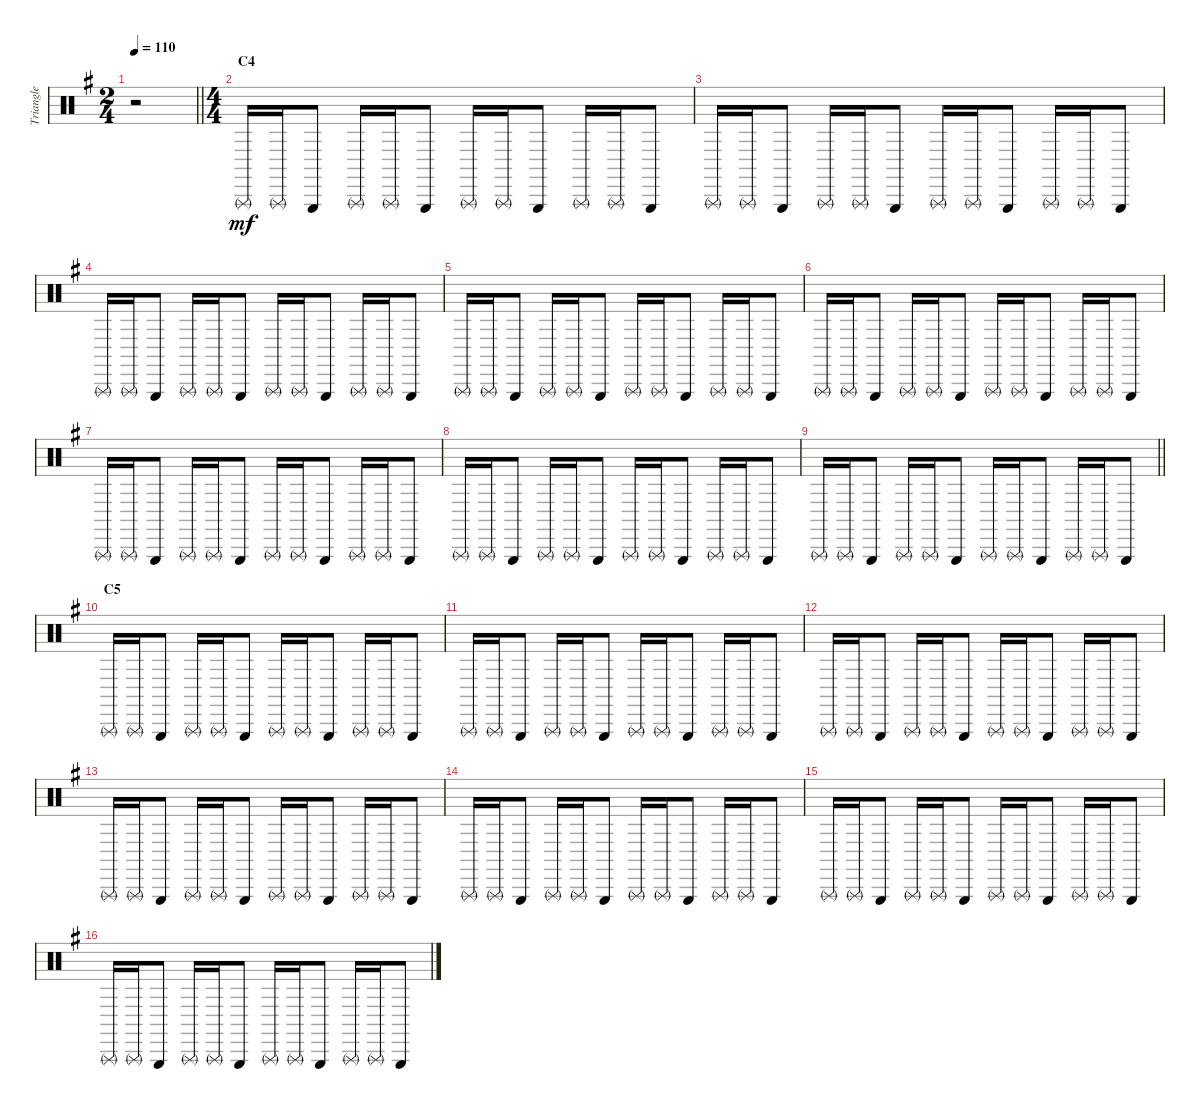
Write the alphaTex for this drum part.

\track ("Triangle" "Triangle") {instrument percussion}
\staff {score}
\articulation defaults
\ts (2 4)
\tempo 110
\clef neutral
\barLineRight lightlight
\ks g
r.2{dy mf} |
\ts (4 4)
\section ("" "C4")
"Triangle (rnute)".16 "Triangle (rnute)".16 "Triangle (hit)".8 "Triangle (rnute)".16 "Triangle (rnute)".16 "Triangle (hit)".8 "Triangle (rnute)".16 "Triangle (rnute)".16 "Triangle (hit)".8 "Triangle (rnute)".16 "Triangle (rnute)".16 "Triangle (hit)".8 |
"Triangle (rnute)".16 "Triangle (rnute)".16 "Triangle (hit)".8 "Triangle (rnute)".16 "Triangle (rnute)".16 "Triangle (hit)".8 "Triangle (rnute)".16 "Triangle (rnute)".16 "Triangle (hit)".8 "Triangle (rnute)".16 "Triangle (rnute)".16 "Triangle (hit)".8 |
"Triangle (rnute)".16 "Triangle (rnute)".16 "Triangle (hit)".8 "Triangle (rnute)".16 "Triangle (rnute)".16 "Triangle (hit)".8 "Triangle (rnute)".16 "Triangle (rnute)".16 "Triangle (hit)".8 "Triangle (rnute)".16 "Triangle (rnute)".16 "Triangle (hit)".8 |
"Triangle (rnute)".16 "Triangle (rnute)".16 "Triangle (hit)".8 "Triangle (rnute)".16 "Triangle (rnute)".16 "Triangle (hit)".8 "Triangle (rnute)".16 "Triangle (rnute)".16 "Triangle (hit)".8 "Triangle (rnute)".16 "Triangle (rnute)".16 "Triangle (hit)".8 |
"Triangle (rnute)".16 "Triangle (rnute)".16 "Triangle (hit)".8 "Triangle (rnute)".16 "Triangle (rnute)".16 "Triangle (hit)".8 "Triangle (rnute)".16 "Triangle (rnute)".16 "Triangle (hit)".8 "Triangle (rnute)".16 "Triangle (rnute)".16 "Triangle (hit)".8 |
"Triangle (rnute)".16 "Triangle (rnute)".16 "Triangle (hit)".8 "Triangle (rnute)".16 "Triangle (rnute)".16 "Triangle (hit)".8 "Triangle (rnute)".16 "Triangle (rnute)".16 "Triangle (hit)".8 "Triangle (rnute)".16 "Triangle (rnute)".16 "Triangle (hit)".8 |
"Triangle (rnute)".16 "Triangle (rnute)".16 "Triangle (hit)".8 "Triangle (rnute)".16 "Triangle (rnute)".16 "Triangle (hit)".8 "Triangle (rnute)".16 "Triangle (rnute)".16 "Triangle (hit)".8 "Triangle (rnute)".16 "Triangle (rnute)".16 "Triangle (hit)".8 |
\barLineRight lightlight "Triangle (rnute)".16 "Triangle (rnute)".16 "Triangle (hit)".8 "Triangle (rnute)".16 "Triangle (rnute)".16 "Triangle (hit)".8 "Triangle (rnute)".16 "Triangle (rnute)".16 "Triangle (hit)".8 "Triangle (rnute)".16 "Triangle (rnute)".16 "Triangle (hit)".8
|
\section ("" "C5")
"Triangle (rnute)".16 "Triangle (rnute)".16 "Triangle (hit)".8 "Triangle (rnute)".16 "Triangle (rnute)".16 "Triangle (hit)".8 "Triangle (rnute)".16 "Triangle (rnute)".16 "Triangle (hit)".8 "Triangle (rnute)".16 "Triangle (rnute)".16 "Triangle (hit)".8 |
"Triangle (rnute)".16 "Triangle (rnute)".16 "Triangle (hit)".8 "Triangle (rnute)".16 "Triangle (rnute)".16 "Triangle (hit)".8 "Triangle (rnute)".16 "Triangle (rnute)".16 "Triangle (hit)".8 "Triangle (rnute)".16 "Triangle (rnute)".16 "Triangle (hit)".8 |
"Triangle (rnute)".16 "Triangle (rnute)".16 "Triangle (hit)".8 "Triangle (rnute)".16 "Triangle (rnute)".16 "Triangle (hit)".8 "Triangle (rnute)".16 "Triangle (rnute)".16 "Triangle (hit)".8 "Triangle (rnute)".16 "Triangle (rnute)".16 "Triangle (hit)".8 |
"Triangle (rnute)".16 "Triangle (rnute)".16 "Triangle (hit)".8 "Triangle (rnute)".16 "Triangle (rnute)".16 "Triangle (hit)".8 "Triangle (rnute)".16 "Triangle (rnute)".16 "Triangle (hit)".8 "Triangle (rnute)".16 "Triangle (rnute)".16 "Triangle (hit)".8 |
"Triangle (rnute)".16 "Triangle (rnute)".16 "Triangle (hit)".8 "Triangle (rnute)".16 "Triangle (rnute)".16 "Triangle (hit)".8 "Triangle (rnute)".16 "Triangle (rnute)".16 "Triangle (hit)".8 "Triangle (rnute)".16 "Triangle (rnute)".16 "Triangle (hit)".8 |
"Triangle (rnute)".16 "Triangle (rnute)".16 "Triangle (hit)".8 "Triangle (rnute)".16 "Triangle (rnute)".16 "Triangle (hit)".8 "Triangle (rnute)".16 "Triangle (rnute)".16 "Triangle (hit)".8 "Triangle (rnute)".16 "Triangle (rnute)".16 "Triangle (hit)".8 |
"Triangle (rnute)".16 "Triangle (rnute)".16 "Triangle (hit)".8 "Triangle (rnute)".16 "Triangle (rnute)".16 "Triangle (hit)".8 "Triangle (rnute)".16 "Triangle (rnute)".16 "Triangle (hit)".8 "Triangle (rnute)".16 "Triangle (rnute)".16 "Triangle (hit)".8
